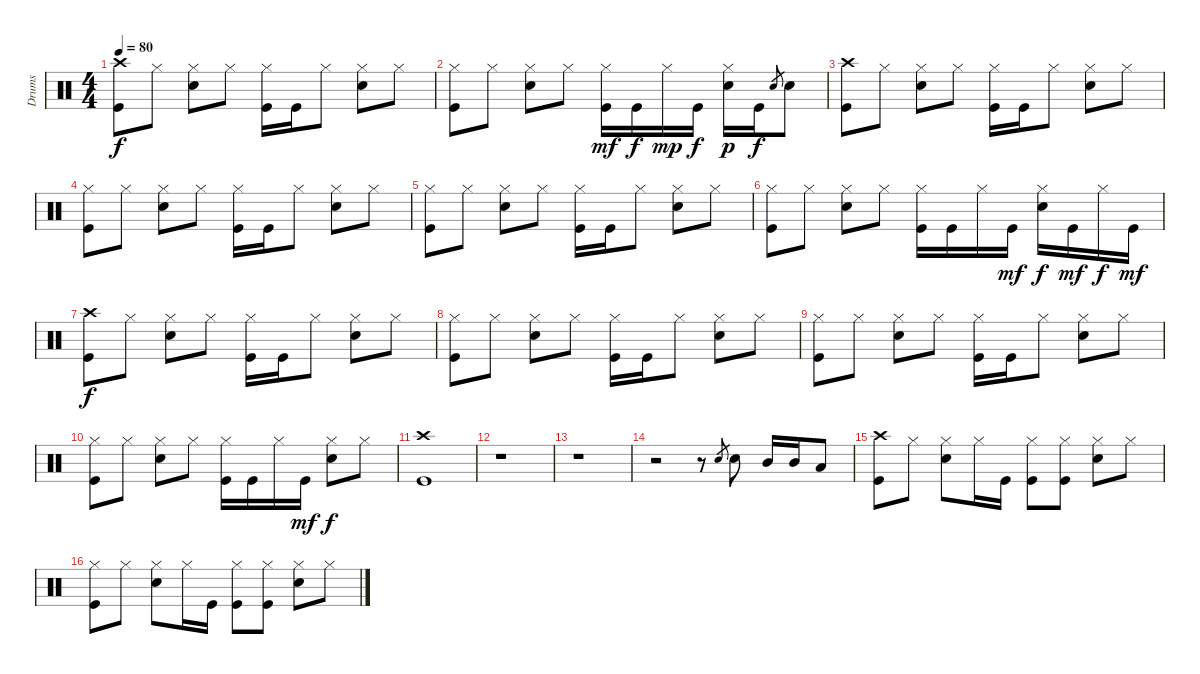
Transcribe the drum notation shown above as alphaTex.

\track ("Drums" "Drums") {instrument percussion}
\staff {score}
\articulation defaults
\ts (4 4)
\tempo 80
\clef neutral
\ks c
("Crash high (hit)" "Kick (hit)").8{dy f} "Hi-Hat (closed)".8 ("Hi-Hat (closed)" "Snare (hit) 2").8 "Hi-Hat (closed)".8 ("Hi-Hat (closed)" "Kick (hit)").16 "Kick (hit)".16 "Hi-Hat (closed)".8 ("Hi-Hat (closed)" "Snare (hit) 2").8 "Hi-Hat (closed)".8 |
("Hi-Hat (closed)" "Kick (hit)").8 "Hi-Hat (closed)".8 ("Hi-Hat (closed)" "Snare (hit) 2").8 "Hi-Hat (closed)".8 ("Hi-Hat (closed)" "Kick (hit)").16{dy mf} "Kick (hit)".16{dy f} "Hi-Hat (closed)".16{dy mp} "Kick (hit)".16{dy f} ("Hi-Hat (closed)" "Snare (hit) 2").16{dy p} "Kick (hit)".16{dy f} "Snare (hit) 2".8{gr} "Snare (hit) 2".8 |
("Crash high (hit)" "Kick (hit)").8 "Hi-Hat (closed)".8 ("Hi-Hat (closed)" "Snare (hit) 2").8 "Hi-Hat (closed)".8 ("Hi-Hat (closed)" "Kick (hit)").16 "Kick (hit)".16 "Hi-Hat (closed)".8 ("Hi-Hat (closed)" "Snare (hit) 2").8 "Hi-Hat (closed)".8 |
("Hi-Hat (closed)" "Kick (hit)").8 "Hi-Hat (closed)".8 ("Hi-Hat (closed)" "Snare (hit) 2").8 "Hi-Hat (closed)".8 ("Hi-Hat (closed)" "Kick (hit)").16 "Kick (hit)".16 "Hi-Hat (closed)".8 ("Hi-Hat (closed)" "Snare (hit) 2").8 "Hi-Hat (closed)".8 |
("Hi-Hat (closed)" "Kick (hit)").8 "Hi-Hat (closed)".8 ("Hi-Hat (closed)" "Snare (hit) 2").8 "Hi-Hat (closed)".8 ("Hi-Hat (closed)" "Kick (hit)").16 "Kick (hit)".16 "Hi-Hat (closed)".8 ("Hi-Hat (closed)" "Snare (hit) 2").8 "Hi-Hat (closed)".8 |
("Hi-Hat (closed)" "Kick (hit)").8 "Hi-Hat (closed)".8 ("Hi-Hat (closed)" "Snare (hit) 2").8 "Hi-Hat (closed)".8 ("Hi-Hat (closed)" "Kick (hit)").16 "Kick (hit)".16 "Hi-Hat (closed)".16 "Kick (hit)".16{dy mf} ("Hi-Hat (closed)" "Snare (hit) 2").16{dy f} "Kick (hit)".16{dy mf} "Hi-Hat (closed)".16{dy f} "Kick (hit)".16{dy mf} |
("Crash high (hit)" "Kick (hit)").8{dy f} "Hi-Hat (closed)".8 ("Hi-Hat (closed)" "Snare (hit) 2").8 "Hi-Hat (closed)".8 ("Hi-Hat (closed)" "Kick (hit)").16 "Kick (hit)".16 "Hi-Hat (closed)".8 ("Hi-Hat (closed)" "Snare (hit) 2").8 "Hi-Hat (closed)".8 |
("Hi-Hat (closed)" "Kick (hit)").8 "Hi-Hat (closed)".8 ("Hi-Hat (closed)" "Snare (hit) 2").8 "Hi-Hat (closed)".8 ("Hi-Hat (closed)" "Kick (hit)").16 "Kick (hit)".16 "Hi-Hat (closed)".8 ("Hi-Hat (closed)" "Snare (hit) 2").8 "Hi-Hat (closed)".8 |
("Hi-Hat (closed)" "Kick (hit)").8 "Hi-Hat (closed)".8 ("Hi-Hat (closed)" "Snare (hit) 2").8 "Hi-Hat (closed)".8 ("Hi-Hat (closed)" "Kick (hit)").16 "Kick (hit)".16 "Hi-Hat (closed)".8 ("Hi-Hat (closed)" "Snare (hit) 2").8 "Hi-Hat (closed)".8 |
("Hi-Hat (closed)" "Kick (hit)").8 "Hi-Hat (closed)".8 ("Hi-Hat (closed)" "Snare (hit) 2").8 "Hi-Hat (closed)".8 ("Hi-Hat (closed)" "Kick (hit)").16 "Kick (hit)".16 "Hi-Hat (closed)".16 "Kick (hit)".16{dy mf} ("Hi-Hat (closed)" "Snare (hit) 2").8{dy f} "Hi-Hat (closed)".8 |
("Crash high (hit)" "Kick (hit)").1 |
r.1 |
r.1 |
r.2 r.8 "Snare (hit) 2".8{gr} "Snare (hit) 2".8 "Mid Tom (hit)".16 "Mid Tom (hit)".16 "Low Tom (hit)".8 |
("Crash high (hit)" "Kick (hit)").8 "Hi-Hat (closed)".8 ("Hi-Hat (closed)" "Snare (hit) 2").8 "Hi-Hat (closed)".16 "Kick (hit)".16 ("Hi-Hat (closed)" "Kick (hit)").8 ("Hi-Hat (closed)" "Kick (hit)").8 ("Hi-Hat (closed)" "Snare (hit) 2").8 "Hi-Hat (closed)".8 |
("Hi-Hat (closed)" "Kick (hit)").8 "Hi-Hat (closed)".8 ("Hi-Hat (closed)" "Snare (hit) 2").8 "Hi-Hat (closed)".16 "Kick (hit)".16 ("Hi-Hat (closed)" "Kick (hit)").8 ("Hi-Hat (closed)" "Kick (hit)").8 ("Hi-Hat (closed)" "Snare (hit) 2").8 "Hi-Hat (closed)".8
